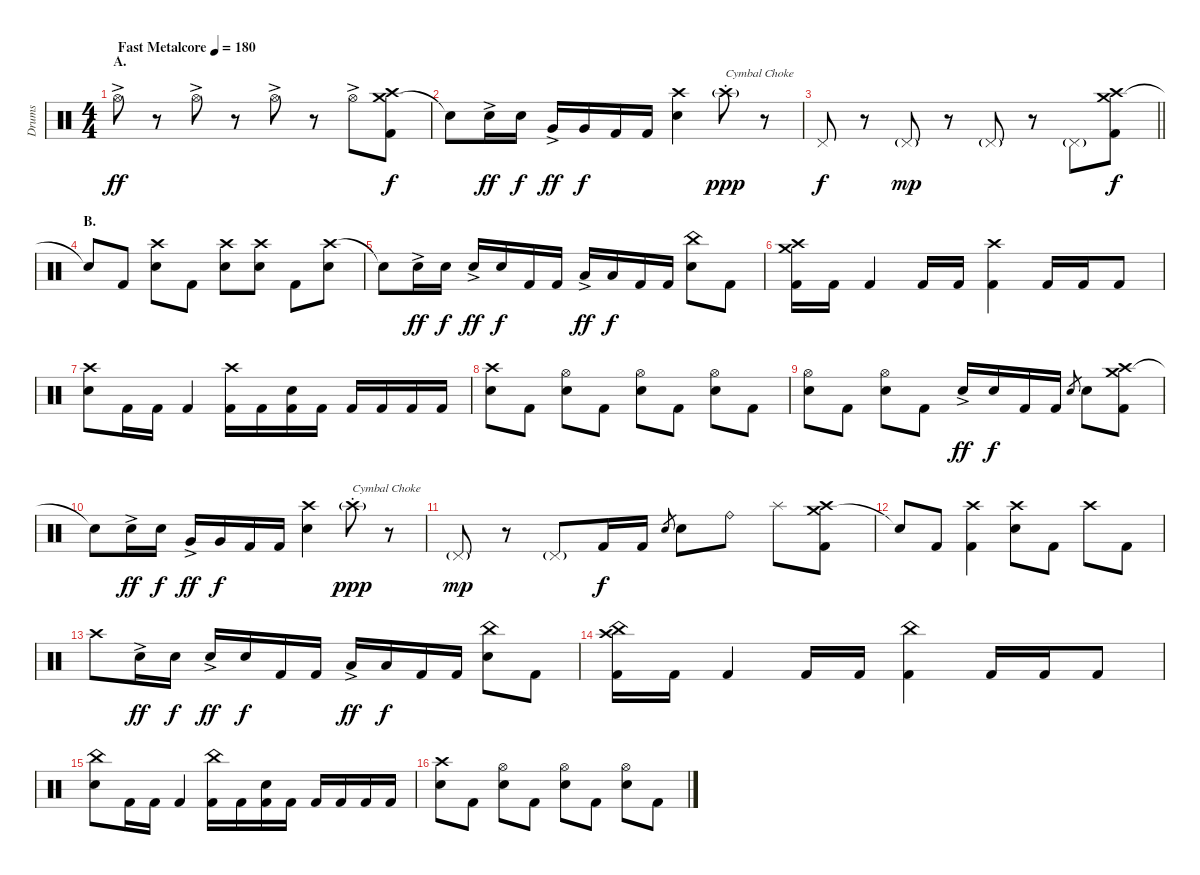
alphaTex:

\track ("Drums" "Drums") {instrument percussion}
\staff {score}
\articulation defaults
\ts (4 4)
\section ("" "A.")
\tempo (180 "Fast Metalcore")
\clef neutral
\ks c "Hi-Hat (open)"{ac}.8{dy ff}
r.8 "Hi-Hat (open)"{ac}.8 r.8 "Hi-Hat (open)"{ac}.8 r.8 "Hi-Hat (open)"{ac}.8 ("Crash medium (hit)" "Crash high (hit)" "Kick (hit) 2").8{dy f} |
"Snare (hit)"{t}.8 "Electric Snare (hit)"{ac}.16{dy ff} "Electric Snare (hit)".16{dy f} "Very Low Tom (hit)"{ac}.16{dy ff} "Very Low Tom (hit)".16{dy f} "Kick (hit) 2".16 "Kick (hit) 2".16 ("Crash high (hit)" "Electric Snare (hit)").4 "Crash high (hit)"{g st}.8{txt "Cymbal Choke" dy ppp} r.8 |
\barLineRight lightlight "Pedal Hi-Hat (hit)".8{dy f}
r.8 "Pedal Hi-Hat (hit)"{g}.8{dy mp} r.8 "Pedal Hi-Hat (hit)"{g}.8 r.8 "Pedal Hi-Hat (hit)"{g}.8 ("Crash medium (hit)" "Crash high (hit)" "Kick (hit) 2").8{dy f} |
\section ("" "B.")
"Snare (hit)"{t}.8 "Kick (hit) 2".8 ("Crash high (hit)" "Electric Snare (hit)").8 "Kick (hit) 2".8 ("Crash high (hit)" "Electric Snare (hit)").8 ("Crash high (hit)" "Electric Snare (hit)").8 "Kick (hit) 2".8 ("Crash high (hit)" "Electric Snare (hit)").8 |
"Snare (hit)"{t}.8 "Electric Snare (hit)"{ac}.16{dy ff} "Electric Snare (hit)".16{dy f} "Electric Snare (hit)"{ac}.16{dy ff} "Electric Snare (hit)".16{dy f} "Kick (hit) 2".16 "Kick (hit) 2".16 "Low Tom (hit)"{ac}.16{dy ff} "Low Tom (hit)".16{dy f} "Kick (hit) 2".16 "Kick (hit) 2".16 ("China (hit)" "Electric Snare (hit)").8 "Kick (hit) 2".8 |
("Crash medium (hit)" "Crash high (hit)" "Kick (hit) 2").16 "Kick (hit) 2".16 "Kick (hit) 2".4 "Kick (hit) 2".16 "Kick (hit) 2".16 ("Crash high (hit)" "Kick (hit) 2").4 "Kick (hit) 2".16 "Kick (hit) 2".16 "Kick (hit) 2".8 |
("Crash high (hit)" "Electric Snare (hit)").8 "Kick (hit) 2".16 "Kick (hit) 2".16 "Kick (hit) 2".4 ("Crash high (hit)" "Kick (hit) 2").16 "Kick (hit) 2".16 ("Electric Snare (hit)" "Kick (hit) 2").16 "Kick (hit) 2".16 "Kick (hit) 2".16 "Kick (hit) 2".16 "Kick (hit) 2".16 "Kick (hit) 2".16 |
("Crash high (hit)" "Electric Snare (hit)").8 "Kick (hit) 2".8 ("Hi-Hat (open)" "Electric Snare (hit)").8 "Kick (hit) 2".8 ("Hi-Hat (open)" "Electric Snare (hit)").8 "Kick (hit) 2".8 ("Hi-Hat (open)" "Electric Snare (hit)").8 "Kick (hit) 2".8 |
("Hi-Hat (open)" "Electric Snare (hit)").8 "Kick (hit) 2".8 ("Hi-Hat (open)" "Electric Snare (hit)").8 "Kick (hit) 2".8 "Electric Snare (hit)"{ac}.16{dy ff} "Electric Snare (hit)".16{dy f} "Kick (hit) 2".16 "Kick (hit) 2".16 "Electric Snare (hit)".8{gr} "Electric Snare (hit)".8 ("Crash medium (hit)" "Crash high (hit)" "Kick (hit) 2").8 |
"Snare (hit)"{t}.8 "Electric Snare (hit)"{ac}.16{dy ff} "Electric Snare (hit)".16{dy f} "Very Low Tom (hit)"{ac}.16{dy ff} "Very Low Tom (hit)".16{dy f} "Kick (hit) 2".16 "Kick (hit) 2".16 ("Crash high (hit)" "Electric Snare (hit)").4 "Crash high (hit)"{g st}.8{txt "Cymbal Choke" dy ppp} r.8 |
"Pedal Hi-Hat (hit)"{g}.8{dy mp} r.8 "Pedal Hi-Hat (hit)"{g}.8 "Kick (hit) 2".16{dy f} "Kick (hit) 2".16 "Electric Snare (hit)".8{gr} "Electric Snare (hit)".8 "Ride (bell)".8 "Splash (hit)".8 ("Crash medium (hit)" "Crash high (hit)" "Kick (hit) 2").8 |
"Snare (hit)"{t}.8 "Kick (hit) 2".8 ("Crash high (hit)" "Kick (hit) 2").4 ("Crash high (hit)" "Electric Snare (hit)").8 "Kick (hit) 2".8 "Crash high (hit)".8 "Kick (hit) 2".8 |
"Crash high (hit)".8 "Electric Snare (hit)"{ac}.16{dy ff} "Electric Snare (hit)".16{dy f} "Electric Snare (hit)"{ac}.16{dy ff} "Electric Snare (hit)".16{dy f} "Kick (hit) 2".16 "Kick (hit) 2".16 "Low Tom (hit)"{ac}.16{dy ff} "Low Tom (hit)".16{dy f} "Kick (hit) 2".16 "Kick (hit) 2".16 ("China (hit)" "Electric Snare (hit)").8 "Kick (hit) 2".8 |
("China (hit)" "Crash high (hit)" "Kick (hit) 2").16 "Kick (hit) 2".16 "Kick (hit) 2".4 "Kick (hit) 2".16 "Kick (hit) 2".16 ("China (hit)" "Kick (hit) 2").4 "Kick (hit) 2".16 "Kick (hit) 2".16 "Kick (hit) 2".8 |
("China (hit)" "Electric Snare (hit)").8 "Kick (hit) 2".16 "Kick (hit) 2".16 "Kick (hit) 2".4 ("China (hit)" "Kick (hit) 2").16 "Kick (hit) 2".16 ("Electric Snare (hit)" "Kick (hit) 2").16 "Kick (hit) 2".16 "Kick (hit) 2".16 "Kick (hit) 2".16 "Kick (hit) 2".16 "Kick (hit) 2".16 |
("Crash high (hit)" "Electric Snare (hit)").8 "Kick (hit) 2".8 ("Hi-Hat (open)" "Electric Snare (hit)").8 "Kick (hit) 2".8 ("Hi-Hat (open)" "Electric Snare (hit)").8 "Kick (hit) 2".8 ("Hi-Hat (open)" "Electric Snare (hit)").8 "Kick (hit) 2".8
